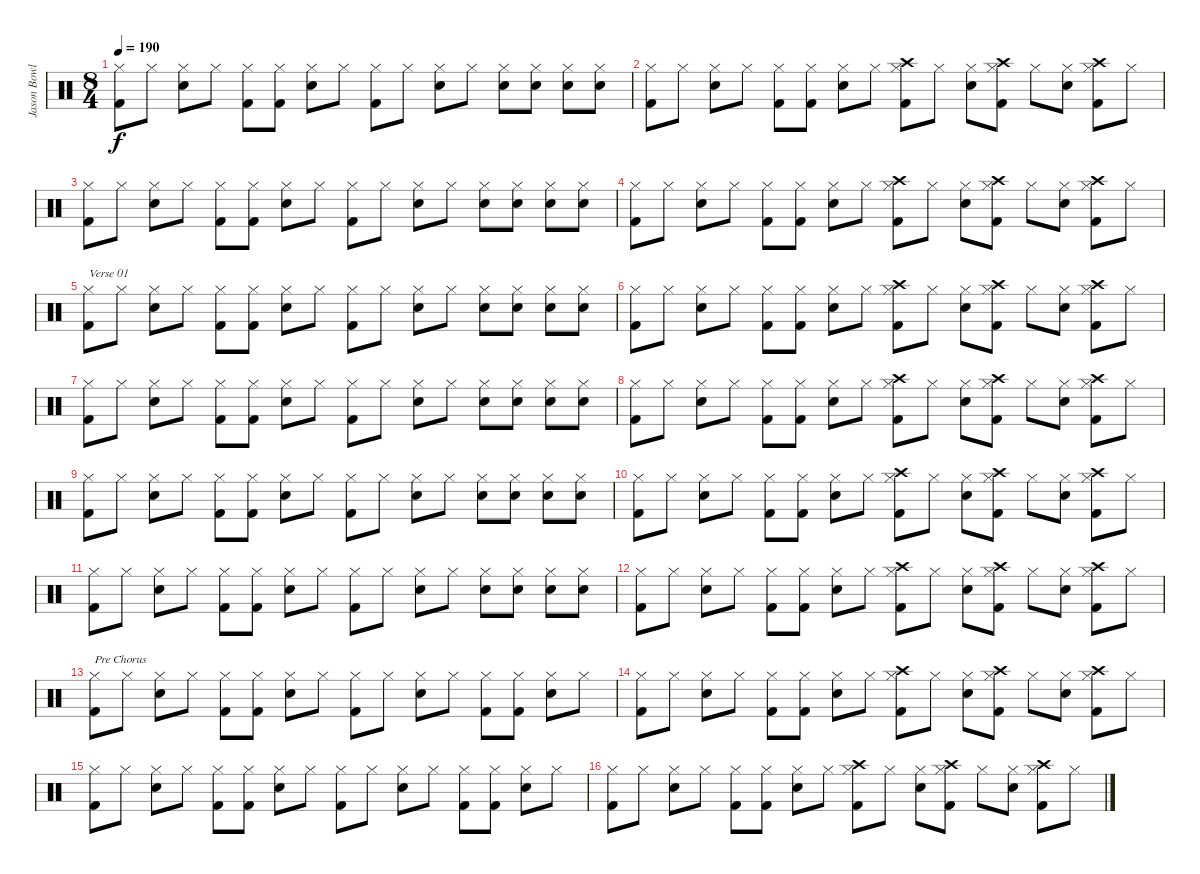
\track ("Jason Bowld" "Jason Bowl") {instrument percussion}
\staff {score}
\articulation defaults
\ts (8 4)
\tempo 190
\clef neutral
\ks c
("Hi-Hat (closed)" "Kick (hit) 2").8{dy f} "Hi-Hat (closed)".8 ("Hi-Hat (closed)" "Snare (hit) 2").8 "Hi-Hat (closed)".8 ("Hi-Hat (closed)" "Kick (hit) 2").8 ("Hi-Hat (closed)" "Kick (hit) 2").8 ("Hi-Hat (closed)" "Snare (hit) 2").8 "Hi-Hat (closed)".8 ("Hi-Hat (closed)" "Kick (hit) 2").8 "Hi-Hat (closed)".8 ("Hi-Hat (closed)" "Snare (hit) 2").8 "Hi-Hat (closed)".8 ("Hi-Hat (closed)" "Snare (hit) 2").8 ("Hi-Hat (closed)" "Snare (hit) 2").8 ("Hi-Hat (closed)" "Snare (hit) 2").8 ("Hi-Hat (closed)" "Snare (hit) 2").8 |
("Hi-Hat (closed)" "Kick (hit) 2").8 "Hi-Hat (closed)".8 ("Hi-Hat (closed)" "Snare (hit) 2").8 "Hi-Hat (closed)".8 ("Hi-Hat (closed)" "Kick (hit) 2").8 ("Hi-Hat (closed)" "Kick (hit) 2").8 ("Hi-Hat (closed)" "Snare (hit) 2").8 "Hi-Hat (closed)".8 ("Hi-Hat (closed)" "Kick (hit) 2" "Crash high (hit)").8 "Hi-Hat (closed)".8 ("Hi-Hat (closed)" "Snare (hit) 2").8 ("Hi-Hat (closed)" "Kick (hit) 2" "Crash high (hit)").8 "Hi-Hat (closed)".8 ("Hi-Hat (closed)" "Snare (hit) 2").8 ("Hi-Hat (closed)" "Kick (hit) 2" "Crash high (hit)").8 "Hi-Hat (closed)".8 |
("Hi-Hat (closed)" "Kick (hit) 2").8 "Hi-Hat (closed)".8 ("Hi-Hat (closed)" "Snare (hit) 2").8 "Hi-Hat (closed)".8 ("Hi-Hat (closed)" "Kick (hit) 2").8 ("Hi-Hat (closed)" "Kick (hit) 2").8 ("Hi-Hat (closed)" "Snare (hit) 2").8 "Hi-Hat (closed)".8 ("Hi-Hat (closed)" "Kick (hit) 2").8 "Hi-Hat (closed)".8 ("Hi-Hat (closed)" "Snare (hit) 2").8 "Hi-Hat (closed)".8 ("Hi-Hat (closed)" "Snare (hit) 2").8 ("Hi-Hat (closed)" "Snare (hit) 2").8 ("Hi-Hat (closed)" "Snare (hit) 2").8 ("Hi-Hat (closed)" "Snare (hit) 2").8 |
("Hi-Hat (closed)" "Kick (hit) 2").8 "Hi-Hat (closed)".8 ("Hi-Hat (closed)" "Snare (hit) 2").8 "Hi-Hat (closed)".8 ("Hi-Hat (closed)" "Kick (hit) 2").8 ("Hi-Hat (closed)" "Kick (hit) 2").8 ("Hi-Hat (closed)" "Snare (hit) 2").8 "Hi-Hat (closed)".8 ("Hi-Hat (closed)" "Kick (hit) 2" "Crash high (hit)").8 "Hi-Hat (closed)".8 ("Hi-Hat (closed)" "Snare (hit) 2").8 ("Hi-Hat (closed)" "Kick (hit) 2" "Crash high (hit)").8 "Hi-Hat (closed)".8 ("Hi-Hat (closed)" "Snare (hit) 2").8 ("Hi-Hat (closed)" "Kick (hit) 2" "Crash high (hit)").8 "Hi-Hat (closed)".8 |
("Hi-Hat (closed)" "Kick (hit) 2").8{txt "Verse 01"} "Hi-Hat (closed)".8 ("Hi-Hat (closed)" "Snare (hit) 2").8 "Hi-Hat (closed)".8 ("Hi-Hat (closed)" "Kick (hit) 2").8 ("Hi-Hat (closed)" "Kick (hit) 2").8 ("Hi-Hat (closed)" "Snare (hit) 2").8 "Hi-Hat (closed)".8 ("Hi-Hat (closed)" "Kick (hit) 2").8 "Hi-Hat (closed)".8 ("Hi-Hat (closed)" "Snare (hit) 2").8 "Hi-Hat (closed)".8 ("Hi-Hat (closed)" "Snare (hit) 2").8 ("Hi-Hat (closed)" "Snare (hit) 2").8 ("Hi-Hat (closed)" "Snare (hit) 2").8 ("Hi-Hat (closed)" "Snare (hit) 2").8 |
("Hi-Hat (closed)" "Kick (hit) 2").8 "Hi-Hat (closed)".8 ("Hi-Hat (closed)" "Snare (hit) 2").8 "Hi-Hat (closed)".8 ("Hi-Hat (closed)" "Kick (hit) 2").8 ("Hi-Hat (closed)" "Kick (hit) 2").8 ("Hi-Hat (closed)" "Snare (hit) 2").8 "Hi-Hat (closed)".8 ("Hi-Hat (closed)" "Kick (hit) 2" "Crash high (hit)").8 "Hi-Hat (closed)".8 ("Hi-Hat (closed)" "Snare (hit) 2").8 ("Hi-Hat (closed)" "Kick (hit) 2" "Crash high (hit)").8 "Hi-Hat (closed)".8 ("Hi-Hat (closed)" "Snare (hit) 2").8 ("Hi-Hat (closed)" "Kick (hit) 2" "Crash high (hit)").8 "Hi-Hat (closed)".8 |
("Hi-Hat (closed)" "Kick (hit) 2").8 "Hi-Hat (closed)".8 ("Hi-Hat (closed)" "Snare (hit) 2").8 "Hi-Hat (closed)".8 ("Hi-Hat (closed)" "Kick (hit) 2").8 ("Hi-Hat (closed)" "Kick (hit) 2").8 ("Hi-Hat (closed)" "Snare (hit) 2").8 "Hi-Hat (closed)".8 ("Hi-Hat (closed)" "Kick (hit) 2").8 "Hi-Hat (closed)".8 ("Hi-Hat (closed)" "Snare (hit) 2").8 "Hi-Hat (closed)".8 ("Hi-Hat (closed)" "Snare (hit) 2").8 ("Hi-Hat (closed)" "Snare (hit) 2").8 ("Hi-Hat (closed)" "Snare (hit) 2").8 ("Hi-Hat (closed)" "Snare (hit) 2").8 |
("Hi-Hat (closed)" "Kick (hit) 2").8 "Hi-Hat (closed)".8 ("Hi-Hat (closed)" "Snare (hit) 2").8 "Hi-Hat (closed)".8 ("Hi-Hat (closed)" "Kick (hit) 2").8 ("Hi-Hat (closed)" "Kick (hit) 2").8 ("Hi-Hat (closed)" "Snare (hit) 2").8 "Hi-Hat (closed)".8 ("Hi-Hat (closed)" "Kick (hit) 2" "Crash high (hit)").8 "Hi-Hat (closed)".8 ("Hi-Hat (closed)" "Snare (hit) 2").8 ("Hi-Hat (closed)" "Kick (hit) 2" "Crash high (hit)").8 "Hi-Hat (closed)".8 ("Hi-Hat (closed)" "Snare (hit) 2").8 ("Hi-Hat (closed)" "Kick (hit) 2" "Crash high (hit)").8 "Hi-Hat (closed)".8 |
("Hi-Hat (closed)" "Kick (hit) 2").8 "Hi-Hat (closed)".8 ("Hi-Hat (closed)" "Snare (hit) 2").8 "Hi-Hat (closed)".8 ("Hi-Hat (closed)" "Kick (hit) 2").8 ("Hi-Hat (closed)" "Kick (hit) 2").8 ("Hi-Hat (closed)" "Snare (hit) 2").8 "Hi-Hat (closed)".8 ("Hi-Hat (closed)" "Kick (hit) 2").8 "Hi-Hat (closed)".8 ("Hi-Hat (closed)" "Snare (hit) 2").8 "Hi-Hat (closed)".8 ("Hi-Hat (closed)" "Snare (hit) 2").8 ("Hi-Hat (closed)" "Snare (hit) 2").8 ("Hi-Hat (closed)" "Snare (hit) 2").8 ("Hi-Hat (closed)" "Snare (hit) 2").8 |
("Hi-Hat (closed)" "Kick (hit) 2").8 "Hi-Hat (closed)".8 ("Hi-Hat (closed)" "Snare (hit) 2").8 "Hi-Hat (closed)".8 ("Hi-Hat (closed)" "Kick (hit) 2").8 ("Hi-Hat (closed)" "Kick (hit) 2").8 ("Hi-Hat (closed)" "Snare (hit) 2").8 "Hi-Hat (closed)".8 ("Hi-Hat (closed)" "Kick (hit) 2" "Crash high (hit)").8 "Hi-Hat (closed)".8 ("Hi-Hat (closed)" "Snare (hit) 2").8 ("Hi-Hat (closed)" "Kick (hit) 2" "Crash high (hit)").8 "Hi-Hat (closed)".8 ("Hi-Hat (closed)" "Snare (hit) 2").8 ("Hi-Hat (closed)" "Kick (hit) 2" "Crash high (hit)").8 "Hi-Hat (closed)".8 |
("Hi-Hat (closed)" "Kick (hit) 2").8 "Hi-Hat (closed)".8 ("Hi-Hat (closed)" "Snare (hit) 2").8 "Hi-Hat (closed)".8 ("Hi-Hat (closed)" "Kick (hit) 2").8 ("Hi-Hat (closed)" "Kick (hit) 2").8 ("Hi-Hat (closed)" "Snare (hit) 2").8 "Hi-Hat (closed)".8 ("Hi-Hat (closed)" "Kick (hit) 2").8 "Hi-Hat (closed)".8 ("Hi-Hat (closed)" "Snare (hit) 2").8 "Hi-Hat (closed)".8 ("Hi-Hat (closed)" "Snare (hit) 2").8 ("Hi-Hat (closed)" "Snare (hit) 2").8 ("Hi-Hat (closed)" "Snare (hit) 2").8 ("Hi-Hat (closed)" "Snare (hit) 2").8 |
("Hi-Hat (closed)" "Kick (hit) 2").8 "Hi-Hat (closed)".8 ("Hi-Hat (closed)" "Snare (hit) 2").8 "Hi-Hat (closed)".8 ("Hi-Hat (closed)" "Kick (hit) 2").8 ("Hi-Hat (closed)" "Kick (hit) 2").8 ("Hi-Hat (closed)" "Snare (hit) 2").8 "Hi-Hat (closed)".8 ("Hi-Hat (closed)" "Kick (hit) 2" "Crash high (hit)").8 "Hi-Hat (closed)".8 ("Hi-Hat (closed)" "Snare (hit) 2").8 ("Hi-Hat (closed)" "Kick (hit) 2" "Crash high (hit)").8 "Hi-Hat (closed)".8 ("Hi-Hat (closed)" "Snare (hit) 2").8 ("Hi-Hat (closed)" "Kick (hit) 2" "Crash high (hit)").8 "Hi-Hat (closed)".8 |
("Hi-Hat (closed)" "Kick (hit) 2").8{txt "Pre Chorus"} "Hi-Hat (closed)".8 ("Hi-Hat (closed)" "Snare (hit) 2").8 "Hi-Hat (closed)".8 ("Hi-Hat (closed)" "Kick (hit) 2").8 ("Hi-Hat (closed)" "Kick (hit) 2").8 ("Hi-Hat (closed)" "Snare (hit) 2").8 "Hi-Hat (closed)".8 ("Hi-Hat (closed)" "Kick (hit) 2").8 "Hi-Hat (closed)".8 ("Hi-Hat (closed)" "Snare (hit) 2").8 "Hi-Hat (closed)".8 ("Hi-Hat (closed)" "Kick (hit) 2").8 ("Hi-Hat (closed)" "Kick (hit) 2").8 ("Hi-Hat (closed)" "Snare (hit) 2").8 "Hi-Hat (closed)".8 |
("Hi-Hat (closed)" "Kick (hit) 2").8 "Hi-Hat (closed)".8 ("Hi-Hat (closed)" "Snare (hit) 2").8 "Hi-Hat (closed)".8 ("Hi-Hat (closed)" "Kick (hit) 2").8 ("Hi-Hat (closed)" "Kick (hit) 2").8 ("Hi-Hat (closed)" "Snare (hit) 2").8 "Hi-Hat (closed)".8 ("Hi-Hat (closed)" "Kick (hit) 2" "Crash high (hit)").8 "Hi-Hat (closed)".8 ("Hi-Hat (closed)" "Snare (hit) 2").8 ("Hi-Hat (closed)" "Kick (hit) 2" "Crash high (hit)").8 "Hi-Hat (closed)".8 ("Hi-Hat (closed)" "Snare (hit) 2").8 ("Hi-Hat (closed)" "Kick (hit) 2" "Crash high (hit)").8 "Hi-Hat (closed)".8 |
("Hi-Hat (closed)" "Kick (hit) 2").8 "Hi-Hat (closed)".8 ("Hi-Hat (closed)" "Snare (hit) 2").8 "Hi-Hat (closed)".8 ("Hi-Hat (closed)" "Kick (hit) 2").8 ("Hi-Hat (closed)" "Kick (hit) 2").8 ("Hi-Hat (closed)" "Snare (hit) 2").8 "Hi-Hat (closed)".8 ("Hi-Hat (closed)" "Kick (hit) 2").8 "Hi-Hat (closed)".8 ("Hi-Hat (closed)" "Snare (hit) 2").8 "Hi-Hat (closed)".8 ("Hi-Hat (closed)" "Kick (hit) 2").8 ("Hi-Hat (closed)" "Kick (hit) 2").8 ("Hi-Hat (closed)" "Snare (hit) 2").8 "Hi-Hat (closed)".8 |
("Hi-Hat (closed)" "Kick (hit) 2").8 "Hi-Hat (closed)".8 ("Hi-Hat (closed)" "Snare (hit) 2").8 "Hi-Hat (closed)".8 ("Hi-Hat (closed)" "Kick (hit) 2").8 ("Hi-Hat (closed)" "Kick (hit) 2").8 ("Hi-Hat (closed)" "Snare (hit) 2").8 "Hi-Hat (closed)".8 ("Hi-Hat (closed)" "Kick (hit) 2" "Crash high (hit)").8 "Hi-Hat (closed)".8 ("Hi-Hat (closed)" "Snare (hit) 2").8 ("Hi-Hat (closed)" "Kick (hit) 2" "Crash high (hit)").8 "Hi-Hat (closed)".8 ("Hi-Hat (closed)" "Snare (hit) 2").8 ("Hi-Hat (closed)" "Kick (hit) 2" "Crash high (hit)").8 "Hi-Hat (closed)".8
